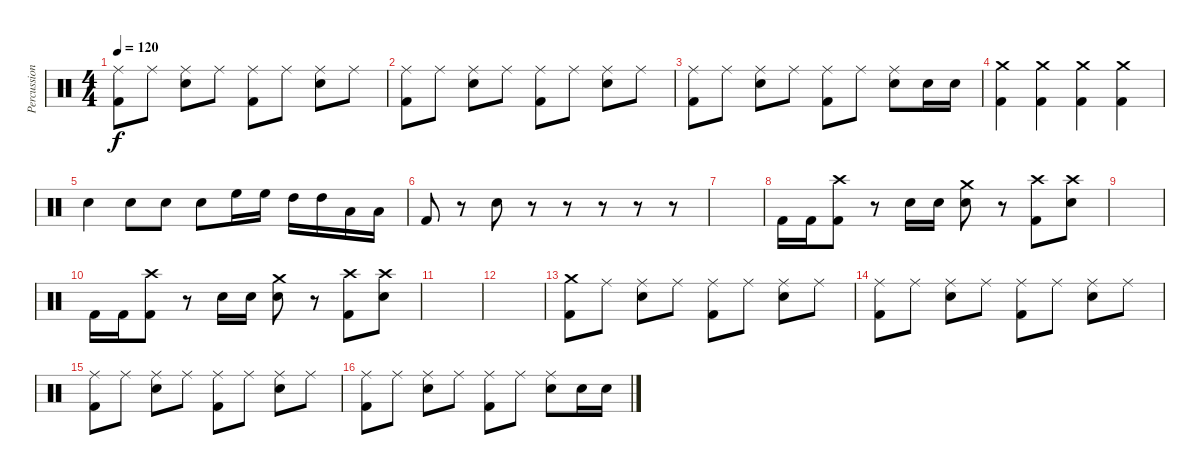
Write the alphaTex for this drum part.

\track ("Percussions" "Percussion") {instrument percussion}
\staff {score}
\articulation defaults
\ts (4 4)
\tempo 120
\clef neutral
\ks c
("Ride (middle)" "Kick (hit) 2").8{dy f} "Ride (middle)".8 ("Ride (middle)" "Electric Snare (hit)").8 "Ride (middle)".8 ("Ride (middle)" "Kick (hit) 2").8 "Ride (middle)".8 ("Ride (middle)" "Electric Snare (hit)").8 "Ride (middle)".8 |
("Ride (middle)" "Kick (hit) 2").8 "Ride (middle)".8 ("Ride (middle)" "Electric Snare (hit)").8 "Ride (middle)".8 ("Ride (middle)" "Kick (hit) 2").8 "Ride (middle)".8 ("Ride (middle)" "Electric Snare (hit)").8 "Ride (middle)".8 |
("Ride (middle)" "Kick (hit) 2").8 "Ride (middle)".8 ("Ride (middle)" "Electric Snare (hit)").8 "Ride (middle)".8 ("Ride (middle)" "Kick (hit) 2").8 "Ride (middle)".8 ("Ride (middle)" "Electric Snare (hit)").8 "Electric Snare (hit)".16 "Electric Snare (hit)".16 |
("Crash medium (hit)" "Kick (hit) 2").4 ("Crash medium (hit)" "Kick (hit) 2").4 ("Crash medium (hit)" "Kick (hit) 2").4 ("Crash medium (hit)" "Kick (hit) 2").4 |
"Electric Snare (hit)".4 "Electric Snare (hit)".8 "Electric Snare (hit)".8 "Electric Snare (hit)".8 "High Floor Tom (hit)".16 "High Floor Tom (hit)".16 "High Tom (hit)".16 "High Tom (hit)".16 "Low Tom (hit)".16 "Low Tom (hit)".16 |
"Kick (hit) 2".8 r.8 "Electric Snare (hit)".8 r.8 r.8 r.8 r.8 r.8 |
|
"Kick (hit) 2".16 "Kick (hit) 2".16 ("Crash high (hit)" "Kick (hit) 2").8 r.8 "Electric Snare (hit)".16 "Electric Snare (hit)".16 ("Crash medium (hit)" "Electric Snare (hit)").8 r.8 ("Crash high (hit)" "Kick (hit) 2").8 ("Crash high (hit)" "Electric Snare (hit)").8 |
|
"Kick (hit) 2".16 "Kick (hit) 2".16 ("Crash high (hit)" "Kick (hit) 2").8 r.8 "Electric Snare (hit)".16 "Electric Snare (hit)".16 ("Crash medium (hit)" "Electric Snare (hit)").8 r.8 ("Crash high (hit)" "Kick (hit) 2").8 ("Crash high (hit)" "Electric Snare (hit)").8 |
|
|
("Crash medium (hit)" "Kick (hit) 2").8 "Ride (middle)".8 ("Ride (middle)" "Electric Snare (hit)").8 "Ride (middle)".8 ("Ride (middle)" "Kick (hit) 2").8 "Ride (middle)".8 ("Ride (middle)" "Electric Snare (hit)").8 "Ride (middle)".8 |
("Ride (middle)" "Kick (hit) 2").8 "Ride (middle)".8 ("Ride (middle)" "Electric Snare (hit)").8 "Ride (middle)".8 ("Ride (middle)" "Kick (hit) 2").8 "Ride (middle)".8 ("Ride (middle)" "Electric Snare (hit)").8 "Ride (middle)".8 |
("Ride (middle)" "Kick (hit) 2").8 "Ride (middle)".8 ("Ride (middle)" "Electric Snare (hit)").8 "Ride (middle)".8 ("Ride (middle)" "Kick (hit) 2").8 "Ride (middle)".8 ("Ride (middle)" "Electric Snare (hit)").8 "Ride (middle)".8 |
("Ride (middle)" "Kick (hit) 2").8 "Ride (middle)".8 ("Ride (middle)" "Electric Snare (hit)").8 "Ride (middle)".8 ("Ride (middle)" "Kick (hit) 2").8 "Ride (middle)".8 ("Ride (middle)" "Electric Snare (hit)").8 "Electric Snare (hit)".16 "Electric Snare (hit)".16
